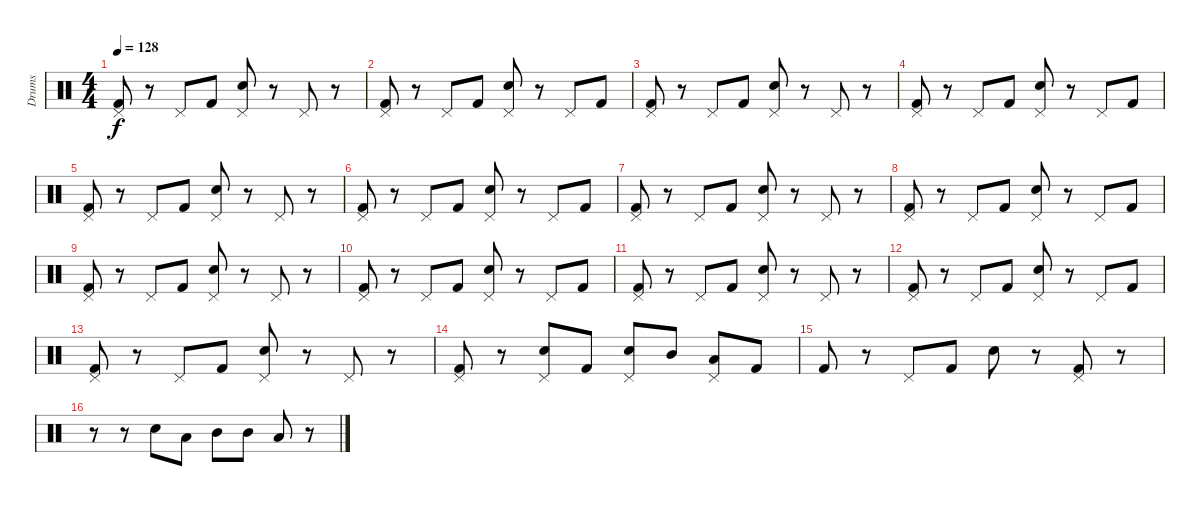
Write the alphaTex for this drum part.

\track ("Drums" "Drums") {instrument percussion}
\staff {score}
\articulation defaults
\ts (4 4)
\tempo 128
\clef neutral
\ks c
("Pedal Hi-Hat (hit)" "Kick (hit) 2").8{dy f} r.8 "Pedal Hi-Hat (hit)".8 "Kick (hit) 2".8 ("Pedal Hi-Hat (hit)" "Electric Snare (hit)").8 r.8 "Pedal Hi-Hat (hit)".8 r.8 |
("Pedal Hi-Hat (hit)" "Kick (hit) 2").8 r.8 "Pedal Hi-Hat (hit)".8 "Kick (hit) 2".8 ("Pedal Hi-Hat (hit)" "Electric Snare (hit)").8 r.8 "Pedal Hi-Hat (hit)".8 "Kick (hit) 2".8 |
("Pedal Hi-Hat (hit)" "Kick (hit) 2").8 r.8 "Pedal Hi-Hat (hit)".8 "Kick (hit) 2".8 ("Pedal Hi-Hat (hit)" "Electric Snare (hit)").8 r.8 "Pedal Hi-Hat (hit)".8 r.8 |
("Pedal Hi-Hat (hit)" "Kick (hit) 2").8 r.8 "Pedal Hi-Hat (hit)".8 "Kick (hit) 2".8 ("Pedal Hi-Hat (hit)" "Electric Snare (hit)").8 r.8 "Pedal Hi-Hat (hit)".8 "Kick (hit) 2".8 |
("Pedal Hi-Hat (hit)" "Kick (hit) 2").8 r.8 "Pedal Hi-Hat (hit)".8 "Kick (hit) 2".8 ("Pedal Hi-Hat (hit)" "Electric Snare (hit)").8 r.8 "Pedal Hi-Hat (hit)".8 r.8 |
("Pedal Hi-Hat (hit)" "Kick (hit) 2").8 r.8 "Pedal Hi-Hat (hit)".8 "Kick (hit) 2".8 ("Pedal Hi-Hat (hit)" "Electric Snare (hit)").8 r.8 "Pedal Hi-Hat (hit)".8 "Kick (hit) 2".8 |
("Pedal Hi-Hat (hit)" "Kick (hit) 2").8 r.8 "Pedal Hi-Hat (hit)".8 "Kick (hit) 2".8 ("Pedal Hi-Hat (hit)" "Electric Snare (hit)").8 r.8 "Pedal Hi-Hat (hit)".8 r.8 |
("Pedal Hi-Hat (hit)" "Kick (hit) 2").8 r.8 "Pedal Hi-Hat (hit)".8 "Kick (hit) 2".8 ("Pedal Hi-Hat (hit)" "Electric Snare (hit)").8 r.8 "Pedal Hi-Hat (hit)".8 "Kick (hit) 2".8 |
("Pedal Hi-Hat (hit)" "Kick (hit) 2").8 r.8 "Pedal Hi-Hat (hit)".8 "Kick (hit) 2".8 ("Pedal Hi-Hat (hit)" "Electric Snare (hit)").8 r.8 "Pedal Hi-Hat (hit)".8 r.8 |
("Pedal Hi-Hat (hit)" "Kick (hit) 2").8 r.8 "Pedal Hi-Hat (hit)".8 "Kick (hit) 2".8 ("Pedal Hi-Hat (hit)" "Electric Snare (hit)").8 r.8 "Pedal Hi-Hat (hit)".8 "Kick (hit) 2".8 |
("Pedal Hi-Hat (hit)" "Kick (hit) 2").8 r.8 "Pedal Hi-Hat (hit)".8 "Kick (hit) 2".8 ("Pedal Hi-Hat (hit)" "Electric Snare (hit)").8 r.8 "Pedal Hi-Hat (hit)".8 r.8 |
("Pedal Hi-Hat (hit)" "Kick (hit) 2").8 r.8 "Pedal Hi-Hat (hit)".8 "Kick (hit) 2".8 ("Pedal Hi-Hat (hit)" "Electric Snare (hit)").8 r.8 "Pedal Hi-Hat (hit)".8 "Kick (hit) 2".8 |
("Pedal Hi-Hat (hit)" "Kick (hit) 2").8 r.8 "Pedal Hi-Hat (hit)".8 "Kick (hit) 2".8 ("Pedal Hi-Hat (hit)" "Electric Snare (hit)").8 r.8 "Pedal Hi-Hat (hit)".8 r.8 |
("Pedal Hi-Hat (hit)" "Kick (hit) 2").8 r.8 ("Pedal Hi-Hat (hit)" "Electric Snare (hit)").8 "Kick (hit) 2".8 ("Pedal Hi-Hat (hit)" "Electric Snare (hit)").8 "Mid Tom (hit)".8 ("Pedal Hi-Hat (hit)" "Low Tom (hit)").8 "Kick (hit) 2".8 |
"Kick (hit) 2".8 r.8 "Pedal Hi-Hat (hit)".8 "Kick (hit) 2".8 "Electric Snare (hit)".8 r.8 ("Pedal Hi-Hat (hit)" "Kick (hit) 2").8 r.8 |
r.8 r.8 "Electric Snare (hit)".8 "Low Tom (hit)".8 "Mid Tom (hit)".8 "Mid Tom (hit)".8 "Low Tom (hit)".8 r.8
